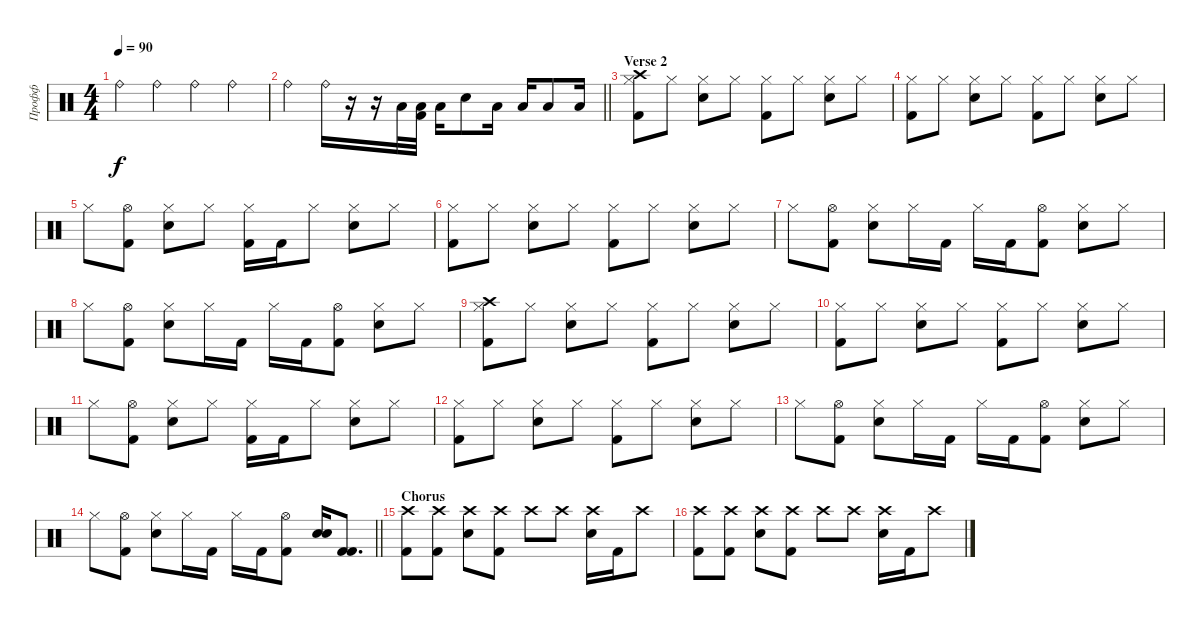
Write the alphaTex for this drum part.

\track ("Профф" "Профф") {instrument percussion}
\staff {score}
\articulation defaults
\ts (4 4)
\tempo 90
\clef neutral
\ks c "Ride (bell)".4{dy f} "Ride (bell)".4 "Ride (bell)".4 "Ride (bell)".4
|
\barLineRight lightlight "Ride (bell)".4 "Ride (bell)".16
r.16 r.16 "Low Tom (hit)".32 ("Low Tom (hit)" "Kick (hit) 2").32 "Low Tom (hit)".16 "Snare (hit) 2".8 "Low Tom (hit)".16 "Low Tom (hit)".16 "Low Tom (hit)".8 "Low Floor Tom (hit)".16 |
\section ("" "Verse 2")
("Hi-Hat (closed)" "Crash high (hit)" "Kick (hit) 2").8 "Hi-Hat (closed)".8 ("Hi-Hat (closed)" "Snare (hit) 2").8 "Hi-Hat (closed)".8 ("Hi-Hat (closed)" "Kick (hit) 2").8 "Hi-Hat (closed)".8 ("Hi-Hat (closed)" "Snare (hit) 2").8 "Hi-Hat (closed)".8 |
("Hi-Hat (closed)" "Kick (hit) 2").8 "Hi-Hat (closed)".8 ("Hi-Hat (closed)" "Snare (hit) 2").8 "Hi-Hat (closed)".8 ("Hi-Hat (closed)" "Kick (hit) 2").8 "Hi-Hat (closed)".8 ("Hi-Hat (closed)" "Snare (hit) 2").8 "Hi-Hat (closed)".8 |
"Hi-Hat (closed)".8 ("Hi-Hat (open)" "Kick (hit) 2").8 ("Hi-Hat (closed)" "Snare (hit) 2").8 "Hi-Hat (closed)".8 ("Hi-Hat (closed)" "Kick (hit) 2").16 "Kick (hit) 2".16 "Hi-Hat (closed)".8 ("Hi-Hat (closed)" "Snare (hit) 2").8 "Hi-Hat (closed)".8 |
("Hi-Hat (closed)" "Kick (hit) 2").8 "Hi-Hat (closed)".8 ("Hi-Hat (closed)" "Snare (hit) 2").8 "Hi-Hat (closed)".8 ("Hi-Hat (closed)" "Kick (hit) 2").8 "Hi-Hat (closed)".8 ("Hi-Hat (closed)" "Snare (hit) 2").8 "Hi-Hat (closed)".8 |
"Hi-Hat (closed)".8 ("Hi-Hat (open)" "Kick (hit) 2").8 ("Hi-Hat (closed)" "Snare (hit) 2").8 "Hi-Hat (closed)".16 "Kick (hit) 2".16 "Hi-Hat (closed)".16 "Kick (hit) 2".16 ("Hi-Hat (open)" "Kick (hit) 2").8 ("Hi-Hat (closed)" "Snare (hit) 2").8 "Hi-Hat (closed)".8 |
"Hi-Hat (closed)".8 ("Hi-Hat (open)" "Kick (hit) 2").8 ("Hi-Hat (closed)" "Snare (hit) 2").8 "Hi-Hat (closed)".16 "Kick (hit) 2".16 "Hi-Hat (closed)".16 "Kick (hit) 2".16 ("Hi-Hat (open)" "Kick (hit) 2").8 ("Hi-Hat (closed)" "Snare (hit) 2").8 "Hi-Hat (closed)".8 |
("Hi-Hat (closed)" "Crash high (hit)" "Kick (hit) 2").8 "Hi-Hat (closed)".8 ("Hi-Hat (closed)" "Snare (hit) 2").8 "Hi-Hat (closed)".8 ("Hi-Hat (closed)" "Kick (hit) 2").8 "Hi-Hat (closed)".8 ("Hi-Hat (closed)" "Snare (hit) 2").8 "Hi-Hat (closed)".8 |
("Hi-Hat (closed)" "Kick (hit) 2").8 "Hi-Hat (closed)".8 ("Hi-Hat (closed)" "Snare (hit) 2").8 "Hi-Hat (closed)".8 ("Hi-Hat (closed)" "Kick (hit) 2").8 "Hi-Hat (closed)".8 ("Hi-Hat (closed)" "Snare (hit) 2").8 "Hi-Hat (closed)".8 |
"Hi-Hat (closed)".8 ("Hi-Hat (open)" "Kick (hit) 2").8 ("Hi-Hat (closed)" "Snare (hit) 2").8 "Hi-Hat (closed)".8 ("Hi-Hat (closed)" "Kick (hit) 2").16 "Kick (hit) 2".16 "Hi-Hat (closed)".8 ("Hi-Hat (closed)" "Snare (hit) 2").8 "Hi-Hat (closed)".8 |
("Hi-Hat (closed)" "Kick (hit) 2").8 "Hi-Hat (closed)".8 ("Hi-Hat (closed)" "Snare (hit) 2").8 "Hi-Hat (closed)".8 ("Hi-Hat (closed)" "Kick (hit) 2").8 "Hi-Hat (closed)".8 ("Hi-Hat (closed)" "Snare (hit) 2").8 "Hi-Hat (closed)".8 |
"Hi-Hat (closed)".8 ("Hi-Hat (open)" "Kick (hit) 2").8 ("Hi-Hat (closed)" "Snare (hit) 2").8 "Hi-Hat (closed)".16 "Kick (hit) 2".16 "Hi-Hat (closed)".16 "Kick (hit) 2".16 ("Hi-Hat (open)" "Kick (hit) 2").8 ("Hi-Hat (closed)" "Snare (hit) 2").8 "Hi-Hat (closed)".8 |
\barLineRight lightlight "Hi-Hat (closed)".8
("Hi-Hat (open)" "Kick (hit) 2").8 ("Hi-Hat (closed)" "Snare (hit) 2").8 "Hi-Hat (closed)".16 "Kick (hit) 2".16 "Hi-Hat (closed)".16 "Kick (hit) 2".16 ("Hi-Hat (open)" "Kick (hit) 2").8 ("Snare (hit) 2" "Snare (hit) 2").16{bu 60} ("Kick (hit) 2" "Kick (hit) 2").8{d} |
\section ("" "Chorus")
("Crash high (hit)" "Kick (hit) 2").8 ("Crash high (hit)" "Kick (hit) 2").8 ("Crash high (hit)" "Snare (hit) 2").8 ("Crash high (hit)" "Kick (hit) 2").8 "Crash high (hit)".8 "Crash high (hit)".8 ("Crash high (hit)" "Snare (hit) 2").16 "Kick (hit) 2".16 "Crash high (hit)".8 |
("Crash high (hit)" "Kick (hit) 2").8 ("Crash high (hit)" "Kick (hit) 2").8 ("Crash high (hit)" "Snare (hit) 2").8 ("Crash high (hit)" "Kick (hit) 2").8 "Crash high (hit)".8 "Crash high (hit)".8 ("Crash high (hit)" "Snare (hit) 2").16 "Kick (hit) 2".16 "Crash high (hit)".8
